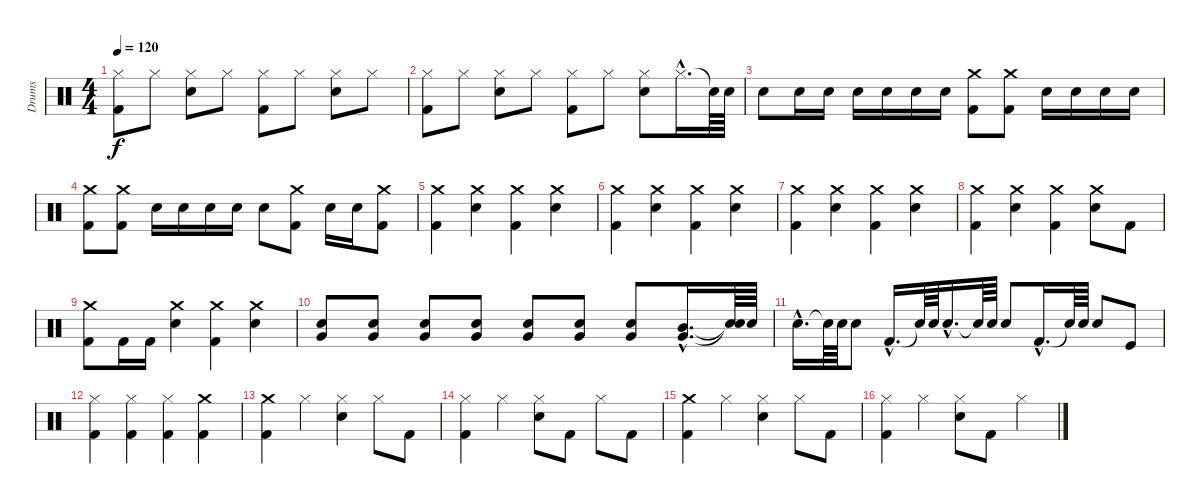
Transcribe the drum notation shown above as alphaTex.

\track ("Drums" "Drums") {instrument percussion}
\staff {score}
\articulation defaults
\ts (4 4)
\tempo 120
\clef neutral
\ks c
("Kick (hit) 2" "Hi-Hat (closed)").8{dy f} "Hi-Hat (closed)".8 ("Snare (hit) 2" "Hi-Hat (closed)").8 "Hi-Hat (closed)".8 ("Kick (hit) 2" "Hi-Hat (closed)").8 "Hi-Hat (closed)".8 ("Snare (hit) 2" "Hi-Hat (closed)").8 "Hi-Hat (closed)".8 |
("Kick (hit) 2" "Hi-Hat (closed)").8 "Hi-Hat (closed)".8 ("Snare (hit) 2" "Hi-Hat (closed)").8 "Hi-Hat (closed)".8 ("Kick (hit) 2" "Hi-Hat (closed)").8 "Hi-Hat (closed)".8 ("Snare (hit) 2" "Hi-Hat (closed)").8 "Hi-Hat (closed)"{hac}.16{d} "Snare (hit)"{t}.64 "Snare (hit) 2".64 |
"Snare (hit) 2".8 "Snare (hit) 2".16 "Snare (hit) 2".16 "Snare (hit) 2".16 "Snare (hit) 2".16 "Snare (hit) 2".16 "Snare (hit) 2".16 ("Kick (hit) 2" "Crash medium (hit)").8 ("Kick (hit) 2" "Crash medium (hit)").8 "Snare (hit) 2".16 "Snare (hit) 2".16 "Snare (hit) 2".16 "Snare (hit) 2".16 |
("Kick (hit) 2" "Crash medium (hit)").8 ("Kick (hit) 2" "Crash medium (hit)").8 "Snare (hit) 2".16 "Snare (hit) 2".16 "Snare (hit) 2".16 "Snare (hit) 2".16 "Snare (hit) 2".8 ("Kick (hit) 2" "Crash medium (hit)").8 "Snare (hit) 2".16 "Snare (hit) 2".16 ("Crash medium (hit)" "Kick (hit) 2").8 |
("Kick (hit) 2" "Crash medium (hit)").4 ("Snare (hit) 2" "Crash medium (hit)").4 ("Kick (hit) 2" "Crash medium (hit)").4 ("Snare (hit) 2" "Crash medium (hit)").4 |
("Kick (hit) 2" "Crash medium (hit)").4 ("Snare (hit) 2" "Crash medium (hit)").4 ("Kick (hit) 2" "Crash medium (hit)").4 ("Snare (hit) 2" "Crash medium (hit)").4 |
("Kick (hit) 2" "Crash medium (hit)").4 ("Snare (hit) 2" "Crash medium (hit)").4 ("Kick (hit) 2" "Crash medium (hit)").4 ("Snare (hit) 2" "Crash medium (hit)").4 |
("Kick (hit) 2" "Crash medium (hit)").4 ("Snare (hit) 2" "Crash medium (hit)").4 ("Kick (hit) 2" "Crash medium (hit)").4 ("Snare (hit) 2" "Crash medium (hit)").8 "Kick (hit) 2".8 |
("Kick (hit) 2" "Crash medium (hit)").8 "Kick (hit) 2".16 "Kick (hit) 2".16 ("Snare (hit) 2" "Crash medium (hit)").4 ("Kick (hit) 2" "Crash medium (hit)").4 ("Snare (hit) 2" "Crash medium (hit)").4 |
("Very Low Tom (hit)" "Snare (hit) 2").8 ("Very Low Tom (hit)" "Snare (hit) 2").8 ("Very Low Tom (hit)" "Snare (hit) 2").8 ("Very Low Tom (hit)" "Snare (hit) 2").8 ("Very Low Tom (hit)" "Snare (hit) 2").8 ("Very Low Tom (hit)" "Snare (hit) 2").8 ("Very Low Tom (hit)" "Snare (hit) 2").8 ("Very Low Tom (hit)"{hac} "Mid Tom (hit)"{hac}).16{d} ("Snare (hit)"{t} "Snare (hit)"{t}).64 "Snare (hit) 2".64 |
"Snare (hit) 2"{hac}.16{d} "Snare (hit)"{t}.64 "Snare (hit) 2".64 "Snare (hit) 2".8 "Kick (hit) 2"{hac}.16{d} "Snare (hit)"{t}.64 "Snare (hit) 2".64 "Snare (hit) 2"{hac}.16{d} "Snare (hit)"{t}.64 "Snare (hit) 2".64 "Snare (hit) 2".8 "Kick (hit) 2"{hac}.16{d} "Snare (hit)"{t}.64 "Snare (hit) 2".64 "Snare (hit) 2".8 "Kick (hit)".8 |
("Kick (hit) 2" "Hi-Hat (closed)").4 ("Kick (hit) 2" "Hi-Hat (closed)").4 ("Kick (hit) 2" "Hi-Hat (closed)").4 ("Kick (hit) 2" "Crash medium (hit)").4 |
("Crash medium (hit)" "Kick (hit) 2").4 "Hi-Hat (closed)".4 ("Snare (hit) 2" "Hi-Hat (closed)").4 "Hi-Hat (closed)".8 "Kick (hit) 2".8 |
("Kick (hit) 2" "Hi-Hat (closed)").4 "Hi-Hat (closed)".4 ("Snare (hit) 2" "Hi-Hat (closed)").8 "Kick (hit) 2".8 "Hi-Hat (closed)".8 "Kick (hit) 2".8 |
("Crash medium (hit)" "Kick (hit) 2").4 "Hi-Hat (closed)".4 ("Snare (hit) 2" "Hi-Hat (closed)").4 "Hi-Hat (closed)".8 "Kick (hit) 2".8 |
("Kick (hit) 2" "Hi-Hat (closed)").4 "Hi-Hat (closed)".4 ("Snare (hit) 2" "Hi-Hat (closed)").8 "Kick (hit) 2".8 "Hi-Hat (closed)".4
